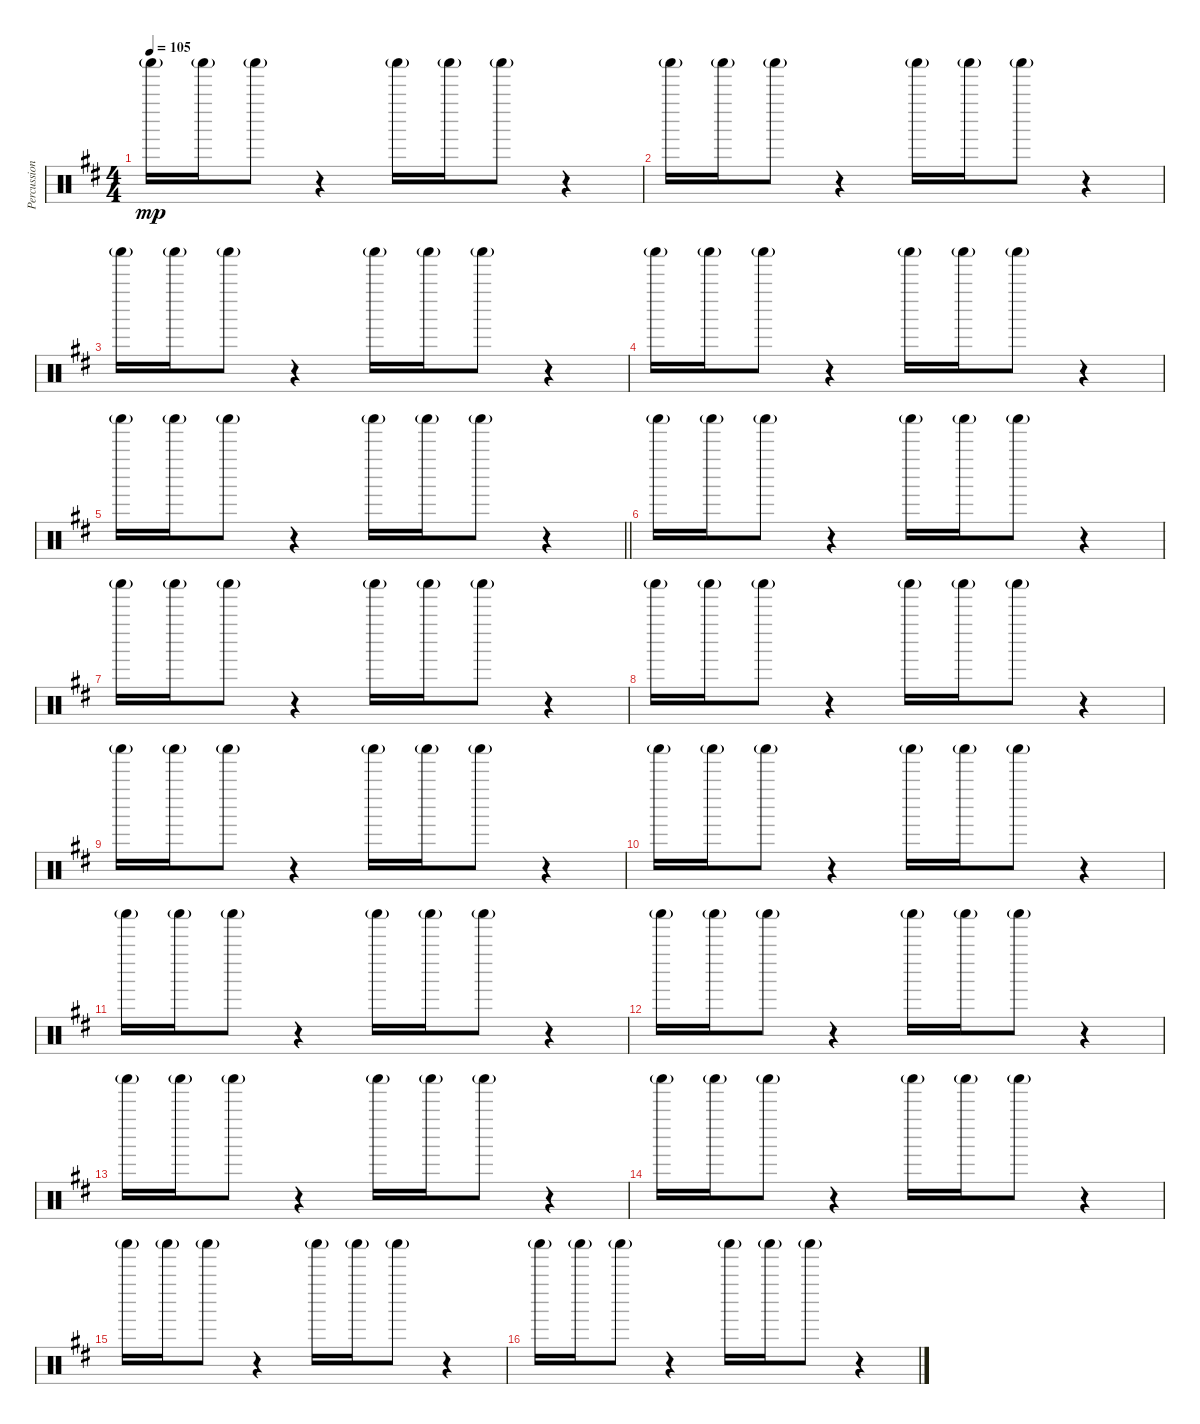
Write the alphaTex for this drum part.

\track ("Percussion" "Percussion") {instrument percussion}
\staff {score}
\articulation defaults
\ts (4 4)
\tempo 105
\clef neutral
\ks bminor "Shaker (hit)"{g}.16{dy mp} "Shaker (hit)"{g}.16 "Shaker (hit)"{g}.8
r.4 "Shaker (hit)"{g}.16 "Shaker (hit)"{g}.16 "Shaker (hit)"{g}.8 r.4 |
"Shaker (hit)"{g}.16 "Shaker (hit)"{g}.16 "Shaker (hit)"{g}.8 r.4 "Shaker (hit)"{g}.16 "Shaker (hit)"{g}.16 "Shaker (hit)"{g}.8 r.4 |
"Shaker (hit)"{g}.16 "Shaker (hit)"{g}.16 "Shaker (hit)"{g}.8 r.4 "Shaker (hit)"{g}.16 "Shaker (hit)"{g}.16 "Shaker (hit)"{g}.8 r.4 |
"Shaker (hit)"{g}.16 "Shaker (hit)"{g}.16 "Shaker (hit)"{g}.8 r.4 "Shaker (hit)"{g}.16 "Shaker (hit)"{g}.16 "Shaker (hit)"{g}.8 r.4 |
\barLineRight lightlight "Shaker (hit)"{g}.16 "Shaker (hit)"{g}.16 "Shaker (hit)"{g}.8
r.4 "Shaker (hit)"{g}.16 "Shaker (hit)"{g}.16 "Shaker (hit)"{g}.8 r.4 |
\section ("" "")
"Shaker (hit)"{g}.16 "Shaker (hit)"{g}.16 "Shaker (hit)"{g}.8 r.4 "Shaker (hit)"{g}.16 "Shaker (hit)"{g}.16 "Shaker (hit)"{g}.8 r.4 |
"Shaker (hit)"{g}.16 "Shaker (hit)"{g}.16 "Shaker (hit)"{g}.8 r.4 "Shaker (hit)"{g}.16 "Shaker (hit)"{g}.16 "Shaker (hit)"{g}.8 r.4 |
"Shaker (hit)"{g}.16 "Shaker (hit)"{g}.16 "Shaker (hit)"{g}.8 r.4 "Shaker (hit)"{g}.16 "Shaker (hit)"{g}.16 "Shaker (hit)"{g}.8 r.4 |
"Shaker (hit)"{g}.16 "Shaker (hit)"{g}.16 "Shaker (hit)"{g}.8 r.4 "Shaker (hit)"{g}.16 "Shaker (hit)"{g}.16 "Shaker (hit)"{g}.8 r.4 |
"Shaker (hit)"{g}.16 "Shaker (hit)"{g}.16 "Shaker (hit)"{g}.8 r.4 "Shaker (hit)"{g}.16 "Shaker (hit)"{g}.16 "Shaker (hit)"{g}.8 r.4 |
"Shaker (hit)"{g}.16 "Shaker (hit)"{g}.16 "Shaker (hit)"{g}.8 r.4 "Shaker (hit)"{g}.16 "Shaker (hit)"{g}.16 "Shaker (hit)"{g}.8 r.4 |
"Shaker (hit)"{g}.16 "Shaker (hit)"{g}.16 "Shaker (hit)"{g}.8 r.4 "Shaker (hit)"{g}.16 "Shaker (hit)"{g}.16 "Shaker (hit)"{g}.8 r.4 |
"Shaker (hit)"{g}.16 "Shaker (hit)"{g}.16 "Shaker (hit)"{g}.8 r.4 "Shaker (hit)"{g}.16 "Shaker (hit)"{g}.16 "Shaker (hit)"{g}.8 r.4 |
"Shaker (hit)"{g}.16 "Shaker (hit)"{g}.16 "Shaker (hit)"{g}.8 r.4 "Shaker (hit)"{g}.16 "Shaker (hit)"{g}.16 "Shaker (hit)"{g}.8 r.4 |
"Shaker (hit)"{g}.16 "Shaker (hit)"{g}.16 "Shaker (hit)"{g}.8 r.4 "Shaker (hit)"{g}.16 "Shaker (hit)"{g}.16 "Shaker (hit)"{g}.8 r.4 |
"Shaker (hit)"{g}.16 "Shaker (hit)"{g}.16 "Shaker (hit)"{g}.8 r.4 "Shaker (hit)"{g}.16 "Shaker (hit)"{g}.16 "Shaker (hit)"{g}.8 r.4
